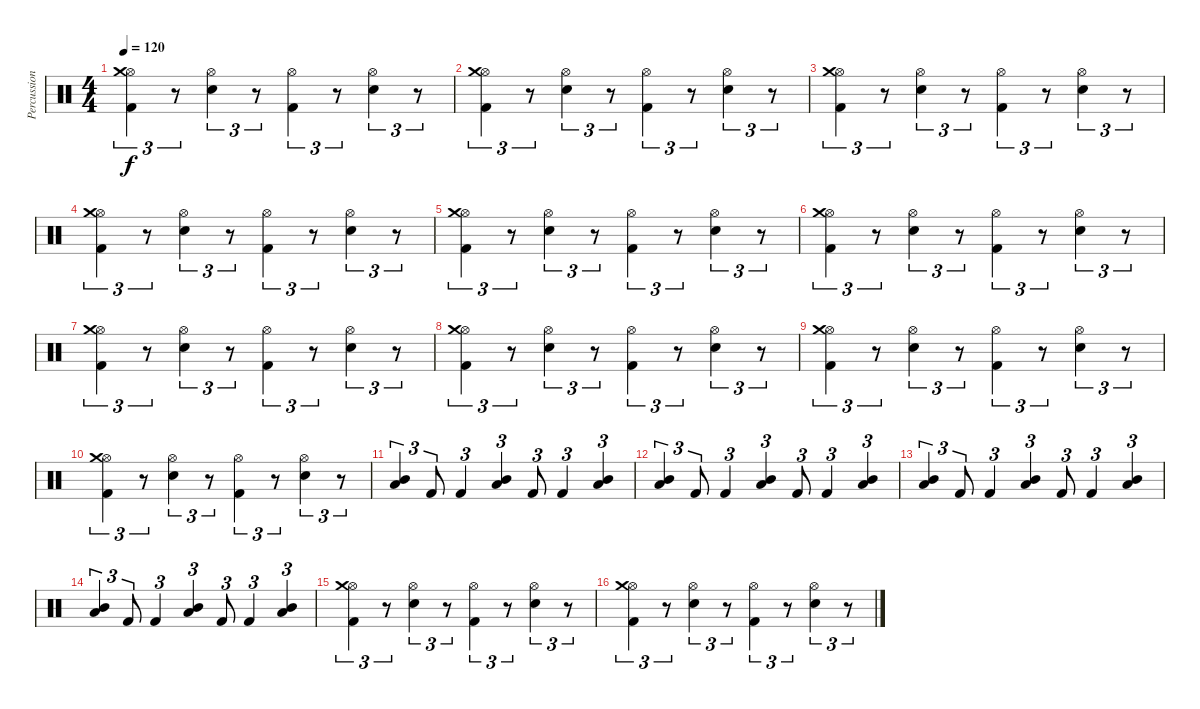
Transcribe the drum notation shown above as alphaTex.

\track ("Percussioni" "Percussion") {instrument percussion}
\staff {score}
\articulation defaults
\ts (4 4)
\tempo 120
\clef neutral
\ks c
("Kick (hit) 2" "Hi-Hat (open)" "Crash medium (hit)").4{tu (3 2) dy f} r.8{tu (3 2)} ("Electric Snare (hit)" "Hi-Hat (open)").4{tu (3 2)} r.8{tu (3 2)} ("Kick (hit) 2" "Hi-Hat (open)").4{tu (3 2)} r.8{tu (3 2)} ("Electric Snare (hit)" "Hi-Hat (open)").4{tu (3 2)} r.8{tu (3 2)} |
("Kick (hit) 2" "Hi-Hat (open)" "Crash medium (hit)").4{tu (3 2)} r.8{tu (3 2)} ("Electric Snare (hit)" "Hi-Hat (open)").4{tu (3 2)} r.8{tu (3 2)} ("Kick (hit) 2" "Hi-Hat (open)").4{tu (3 2)} r.8{tu (3 2)} ("Electric Snare (hit)" "Hi-Hat (open)").4{tu (3 2)} r.8{tu (3 2)} |
("Kick (hit) 2" "Hi-Hat (open)" "Crash medium (hit)").4{tu (3 2)} r.8{tu (3 2)} ("Electric Snare (hit)" "Hi-Hat (open)").4{tu (3 2)} r.8{tu (3 2)} ("Kick (hit) 2" "Hi-Hat (open)").4{tu (3 2)} r.8{tu (3 2)} ("Electric Snare (hit)" "Hi-Hat (open)").4{tu (3 2)} r.8{tu (3 2)} |
("Kick (hit) 2" "Hi-Hat (open)" "Crash medium (hit)").4{tu (3 2)} r.8{tu (3 2)} ("Electric Snare (hit)" "Hi-Hat (open)").4{tu (3 2)} r.8{tu (3 2)} ("Kick (hit) 2" "Hi-Hat (open)").4{tu (3 2)} r.8{tu (3 2)} ("Electric Snare (hit)" "Hi-Hat (open)").4{tu (3 2)} r.8{tu (3 2)} |
("Kick (hit) 2" "Hi-Hat (open)" "Crash medium (hit)").4{tu (3 2)} r.8{tu (3 2)} ("Electric Snare (hit)" "Hi-Hat (open)").4{tu (3 2)} r.8{tu (3 2)} ("Kick (hit) 2" "Hi-Hat (open)").4{tu (3 2)} r.8{tu (3 2)} ("Electric Snare (hit)" "Hi-Hat (open)").4{tu (3 2)} r.8{tu (3 2)} |
("Kick (hit) 2" "Hi-Hat (open)" "Crash medium (hit)").4{tu (3 2)} r.8{tu (3 2)} ("Electric Snare (hit)" "Hi-Hat (open)").4{tu (3 2)} r.8{tu (3 2)} ("Kick (hit) 2" "Hi-Hat (open)").4{tu (3 2)} r.8{tu (3 2)} ("Electric Snare (hit)" "Hi-Hat (open)").4{tu (3 2)} r.8{tu (3 2)} |
("Kick (hit) 2" "Hi-Hat (open)" "Crash medium (hit)").4{tu (3 2)} r.8{tu (3 2)} ("Electric Snare (hit)" "Hi-Hat (open)").4{tu (3 2)} r.8{tu (3 2)} ("Kick (hit) 2" "Hi-Hat (open)").4{tu (3 2)} r.8{tu (3 2)} ("Electric Snare (hit)" "Hi-Hat (open)").4{tu (3 2)} r.8{tu (3 2)} |
("Kick (hit) 2" "Hi-Hat (open)" "Crash medium (hit)").4{tu (3 2)} r.8{tu (3 2)} ("Electric Snare (hit)" "Hi-Hat (open)").4{tu (3 2)} r.8{tu (3 2)} ("Kick (hit) 2" "Hi-Hat (open)").4{tu (3 2)} r.8{tu (3 2)} ("Electric Snare (hit)" "Hi-Hat (open)").4{tu (3 2)} r.8{tu (3 2)} |
("Kick (hit) 2" "Hi-Hat (open)" "Crash medium (hit)").4{tu (3 2)} r.8{tu (3 2)} ("Electric Snare (hit)" "Hi-Hat (open)").4{tu (3 2)} r.8{tu (3 2)} ("Kick (hit) 2" "Hi-Hat (open)").4{tu (3 2)} r.8{tu (3 2)} ("Electric Snare (hit)" "Hi-Hat (open)").4{tu (3 2)} r.8{tu (3 2)} |
("Kick (hit) 2" "Hi-Hat (open)" "Crash medium (hit)").4{tu (3 2)} r.8{tu (3 2)} ("Electric Snare (hit)" "Hi-Hat (open)").4{tu (3 2)} r.8{tu (3 2)} ("Kick (hit) 2" "Hi-Hat (open)").4{tu (3 2)} r.8{tu (3 2)} ("Electric Snare (hit)" "Hi-Hat (open)").4{tu (3 2)} r.8{tu (3 2)} |
("Low Tom (hit)" "Mid Tom (hit)").4{tu (3 2)} "Kick (hit) 2".8{tu (3 2)} "Kick (hit) 2".4{tu (3 2)} ("Low Tom (hit)" "Mid Tom (hit)").4{tu (3 2)} "Kick (hit) 2".8{tu (3 2)} "Kick (hit) 2".4{tu (3 2)} ("Low Tom (hit)" "Mid Tom (hit)").4{tu (3 2)} |
("Low Tom (hit)" "Mid Tom (hit)").4{tu (3 2)} "Kick (hit) 2".8{tu (3 2)} "Kick (hit) 2".4{tu (3 2)} ("Low Tom (hit)" "Mid Tom (hit)").4{tu (3 2)} "Kick (hit) 2".8{tu (3 2)} "Kick (hit) 2".4{tu (3 2)} ("Low Tom (hit)" "Mid Tom (hit)").4{tu (3 2)} |
("Low Tom (hit)" "Mid Tom (hit)").4{tu (3 2)} "Kick (hit) 2".8{tu (3 2)} "Kick (hit) 2".4{tu (3 2)} ("Low Tom (hit)" "Mid Tom (hit)").4{tu (3 2)} "Kick (hit) 2".8{tu (3 2)} "Kick (hit) 2".4{tu (3 2)} ("Low Tom (hit)" "Mid Tom (hit)").4{tu (3 2)} |
("Low Tom (hit)" "Mid Tom (hit)").4{tu (3 2)} "Kick (hit) 2".8{tu (3 2)} "Kick (hit) 2".4{tu (3 2)} ("Low Tom (hit)" "Mid Tom (hit)").4{tu (3 2)} "Kick (hit) 2".8{tu (3 2)} "Kick (hit) 2".4{tu (3 2)} ("Low Tom (hit)" "Mid Tom (hit)").4{tu (3 2)} |
("Kick (hit) 2" "Hi-Hat (open)" "Crash medium (hit)").4{tu (3 2)} r.8{tu (3 2)} ("Electric Snare (hit)" "Hi-Hat (open)").4{tu (3 2)} r.8{tu (3 2)} ("Kick (hit) 2" "Hi-Hat (open)").4{tu (3 2)} r.8{tu (3 2)} ("Electric Snare (hit)" "Hi-Hat (open)").4{tu (3 2)} r.8{tu (3 2)} |
("Kick (hit) 2" "Hi-Hat (open)" "Crash medium (hit)").4{tu (3 2)} r.8{tu (3 2)} ("Electric Snare (hit)" "Hi-Hat (open)").4{tu (3 2)} r.8{tu (3 2)} ("Kick (hit) 2" "Hi-Hat (open)").4{tu (3 2)} r.8{tu (3 2)} ("Electric Snare (hit)" "Hi-Hat (open)").4{tu (3 2)} r.8{tu (3 2)}
